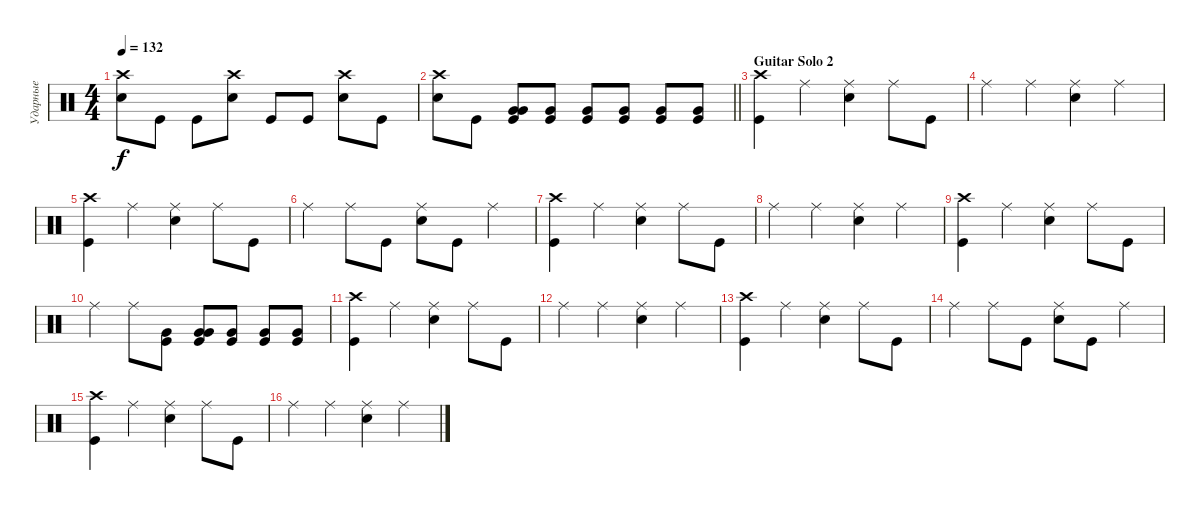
\track ("Ударные" "Ударные") {instrument percussion}
\staff {score}
\articulation defaults
\ts (4 4)
\tempo 132
\clef neutral
\ks c
("Snare (hit) 2" "Crash high (hit)").8{dy f} "Kick (hit)".8 "Kick (hit)".8 ("Snare (hit) 2" "Crash high (hit)").8 "Kick (hit)".8 "Kick (hit)".8 ("Snare (hit) 2" "Crash high (hit)").8 "Kick (hit)".8 |
\barLineRight lightlight
("Snare (hit) 2" "Crash high (hit)").8 "Kick (hit)".8 ("Kick (hit)" "Very Low Tom (hit)" "Very Low Tom (hit)").8{bd 240} ("Kick (hit)" "Very Low Tom (hit)").8 ("Kick (hit)" "Very Low Tom (hit)").8 ("Kick (hit)" "Very Low Tom (hit)").8 ("Kick (hit)" "Very Low Tom (hit)").8 ("Kick (hit)" "Very Low Tom (hit)").8 |
\section ("" "Guitar Solo 2")
("Kick (hit)" "Crash high (hit)").4 "Ride (middle)".4 ("Ride (middle)" "Snare (hit) 2").4 "Ride (middle)".8 "Kick (hit)".8 |
"Ride (middle)".4 "Ride (middle)".4 ("Snare (hit) 2" "Ride (middle)").4 "Ride (middle)".4 |
("Kick (hit)" "Crash high (hit)").4 "Ride (middle)".4 ("Ride (middle)" "Snare (hit) 2").4 "Ride (middle)".8 "Kick (hit)".8 |
"Ride (middle)".4 "Ride (middle)".8 "Kick (hit)".8 ("Snare (hit) 2" "Ride (middle)").8 "Kick (hit)".8 "Ride (middle)".4 |
("Kick (hit)" "Crash high (hit)").4 "Ride (middle)".4 ("Ride (middle)" "Snare (hit) 2").4 "Ride (middle)".8 "Kick (hit)".8 |
"Ride (middle)".4 "Ride (middle)".4 ("Snare (hit) 2" "Ride (middle)").4 "Ride (middle)".4 |
("Kick (hit)" "Crash high (hit)").4 "Ride (middle)".4 ("Ride (middle)" "Snare (hit) 2").4 "Ride (middle)".8 "Kick (hit)".8 |
"Ride (middle)".4 "Ride (middle)".8 ("Kick (hit)" "Very Low Tom (hit)").8 ("Kick (hit)" "Very Low Tom (hit)" "Very Low Tom (hit)").8{bd 240} ("Kick (hit)" "Very Low Tom (hit)").8 ("Kick (hit)" "Very Low Tom (hit)").8 ("Kick (hit)" "Very Low Tom (hit)").8 |
("Kick (hit)" "Crash high (hit)").4 "Ride (middle)".4 ("Ride (middle)" "Snare (hit) 2").4 "Ride (middle)".8 "Kick (hit)".8 |
"Ride (middle)".4 "Ride (middle)".4 ("Snare (hit) 2" "Ride (middle)").4 "Ride (middle)".4 |
("Kick (hit)" "Crash high (hit)").4 "Ride (middle)".4 ("Ride (middle)" "Snare (hit) 2").4 "Ride (middle)".8 "Kick (hit)".8 |
"Ride (middle)".4 "Ride (middle)".8 "Kick (hit)".8 ("Snare (hit) 2" "Ride (middle)").8 "Kick (hit)".8 "Ride (middle)".4 |
("Kick (hit)" "Crash high (hit)").4 "Ride (middle)".4 ("Ride (middle)" "Snare (hit) 2").4 "Ride (middle)".8 "Kick (hit)".8 |
"Ride (middle)".4 "Ride (middle)".4 ("Snare (hit) 2" "Ride (middle)").4 "Ride (middle)".4
